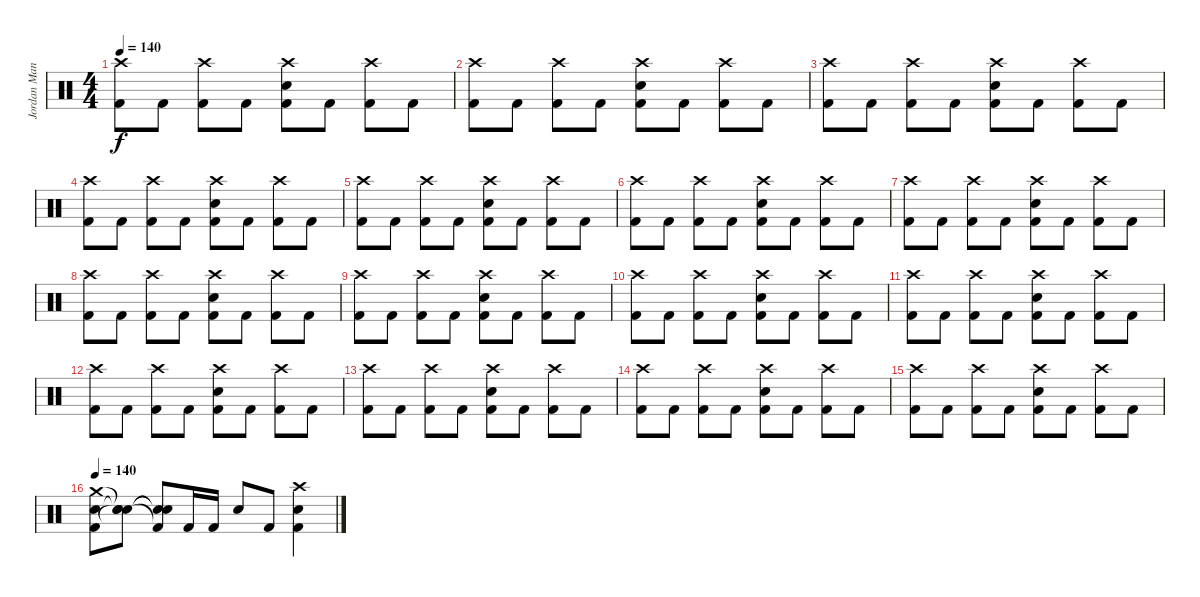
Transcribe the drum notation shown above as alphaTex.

\track ("Jordan Mancino - Drums" "Jordan Man") {instrument percussion}
\staff {score}
\articulation defaults
\ts (4 4)
\tempo 140
\clef neutral
\ks c
("Crash high (hit)" "Kick (hit) 2").8{dy f} "Kick (hit) 2".8 ("Crash high (hit)" "Kick (hit) 2").8 "Kick (hit) 2".8 ("Crash high (hit)" "Snare (hit) 2" "Kick (hit) 2").8 "Kick (hit) 2".8 ("Crash high (hit)" "Kick (hit) 2").8 "Kick (hit) 2".8 |
("Crash high (hit)" "Kick (hit) 2").8 "Kick (hit) 2".8 ("Crash high (hit)" "Kick (hit) 2").8 "Kick (hit) 2".8 ("Crash high (hit)" "Snare (hit) 2" "Kick (hit) 2").8 "Kick (hit) 2".8 ("Crash high (hit)" "Kick (hit) 2").8 "Kick (hit) 2".8 |
("Crash high (hit)" "Kick (hit) 2").8 "Kick (hit) 2".8 ("Crash high (hit)" "Kick (hit) 2").8 "Kick (hit) 2".8 ("Crash high (hit)" "Snare (hit) 2" "Kick (hit) 2").8 "Kick (hit) 2".8 ("Crash high (hit)" "Kick (hit) 2").8 "Kick (hit) 2".8 |
("Crash high (hit)" "Kick (hit) 2").8 "Kick (hit) 2".8 ("Crash high (hit)" "Kick (hit) 2").8 "Kick (hit) 2".8 ("Crash high (hit)" "Snare (hit) 2" "Kick (hit) 2").8 "Kick (hit) 2".8 ("Crash high (hit)" "Kick (hit) 2").8 "Kick (hit) 2".8 |
("Crash high (hit)" "Kick (hit) 2").8 "Kick (hit) 2".8 ("Crash high (hit)" "Kick (hit) 2").8 "Kick (hit) 2".8 ("Crash high (hit)" "Snare (hit) 2" "Kick (hit) 2").8 "Kick (hit) 2".8 ("Crash high (hit)" "Kick (hit) 2").8 "Kick (hit) 2".8 |
("Crash high (hit)" "Kick (hit) 2").8 "Kick (hit) 2".8 ("Crash high (hit)" "Kick (hit) 2").8 "Kick (hit) 2".8 ("Crash high (hit)" "Snare (hit) 2" "Kick (hit) 2").8 "Kick (hit) 2".8 ("Crash high (hit)" "Kick (hit) 2").8 "Kick (hit) 2".8 |
("Crash high (hit)" "Kick (hit) 2").8 "Kick (hit) 2".8 ("Crash high (hit)" "Kick (hit) 2").8 "Kick (hit) 2".8 ("Crash high (hit)" "Snare (hit) 2" "Kick (hit) 2").8 "Kick (hit) 2".8 ("Crash high (hit)" "Kick (hit) 2").8 "Kick (hit) 2".8 |
("Crash high (hit)" "Kick (hit) 2").8 "Kick (hit) 2".8 ("Crash high (hit)" "Kick (hit) 2").8 "Kick (hit) 2".8 ("Crash high (hit)" "Snare (hit) 2" "Kick (hit) 2").8 "Kick (hit) 2".8 ("Crash high (hit)" "Kick (hit) 2").8 "Kick (hit) 2".8 |
("Crash high (hit)" "Kick (hit) 2").8 "Kick (hit) 2".8 ("Crash high (hit)" "Kick (hit) 2").8 "Kick (hit) 2".8 ("Crash high (hit)" "Snare (hit) 2" "Kick (hit) 2").8 "Kick (hit) 2".8 ("Crash high (hit)" "Kick (hit) 2").8 "Kick (hit) 2".8 |
("Crash high (hit)" "Kick (hit) 2").8 "Kick (hit) 2".8 ("Crash high (hit)" "Kick (hit) 2").8 "Kick (hit) 2".8 ("Crash high (hit)" "Snare (hit) 2" "Kick (hit) 2").8 "Kick (hit) 2".8 ("Crash high (hit)" "Kick (hit) 2").8 "Kick (hit) 2".8 |
("Crash high (hit)" "Kick (hit) 2").8 "Kick (hit) 2".8 ("Crash high (hit)" "Kick (hit) 2").8 "Kick (hit) 2".8 ("Crash high (hit)" "Snare (hit) 2" "Kick (hit) 2").8 "Kick (hit) 2".8 ("Crash high (hit)" "Kick (hit) 2").8 "Kick (hit) 2".8 |
("Crash high (hit)" "Kick (hit) 2").8 "Kick (hit) 2".8 ("Crash high (hit)" "Kick (hit) 2").8 "Kick (hit) 2".8 ("Crash high (hit)" "Snare (hit) 2" "Kick (hit) 2").8 "Kick (hit) 2".8 ("Crash high (hit)" "Kick (hit) 2").8 "Kick (hit) 2".8 |
("Crash high (hit)" "Kick (hit) 2").8 "Kick (hit) 2".8 ("Crash high (hit)" "Kick (hit) 2").8 "Kick (hit) 2".8 ("Crash high (hit)" "Snare (hit) 2" "Kick (hit) 2").8 "Kick (hit) 2".8 ("Crash high (hit)" "Kick (hit) 2").8 "Kick (hit) 2".8 |
("Crash high (hit)" "Kick (hit) 2").8 "Kick (hit) 2".8 ("Crash high (hit)" "Kick (hit) 2").8 "Kick (hit) 2".8 ("Crash high (hit)" "Snare (hit) 2" "Kick (hit) 2").8 "Kick (hit) 2".8 ("Crash high (hit)" "Kick (hit) 2").8 "Kick (hit) 2".8 |
("Crash high (hit)" "Kick (hit) 2").8 "Kick (hit) 2".8 ("Crash high (hit)" "Kick (hit) 2").8 "Kick (hit) 2".8 ("Crash high (hit)" "Snare (hit) 2" "Kick (hit) 2").8 "Kick (hit) 2".8 ("Crash high (hit)" "Kick (hit) 2").8 "Kick (hit) 2".8 |
\tempo 140
("Crash medium (hit)" "Snare (hit) 2" "Kick (hit) 2").8 ("Snare (hit)"{t} "Snare (hit)"{t} "Snare (hit)"{t}).8 ("Snare (hit)"{t} "Snare (hit)"{t} "Kick (hit) 2"{t}).8 "Kick (hit) 2".16 "Kick (hit) 2".16 "Snare (hit) 2".8 "Kick (hit) 2".8 ("Crash high (hit)" "Snare (hit) 2" "Kick (hit) 2").4
